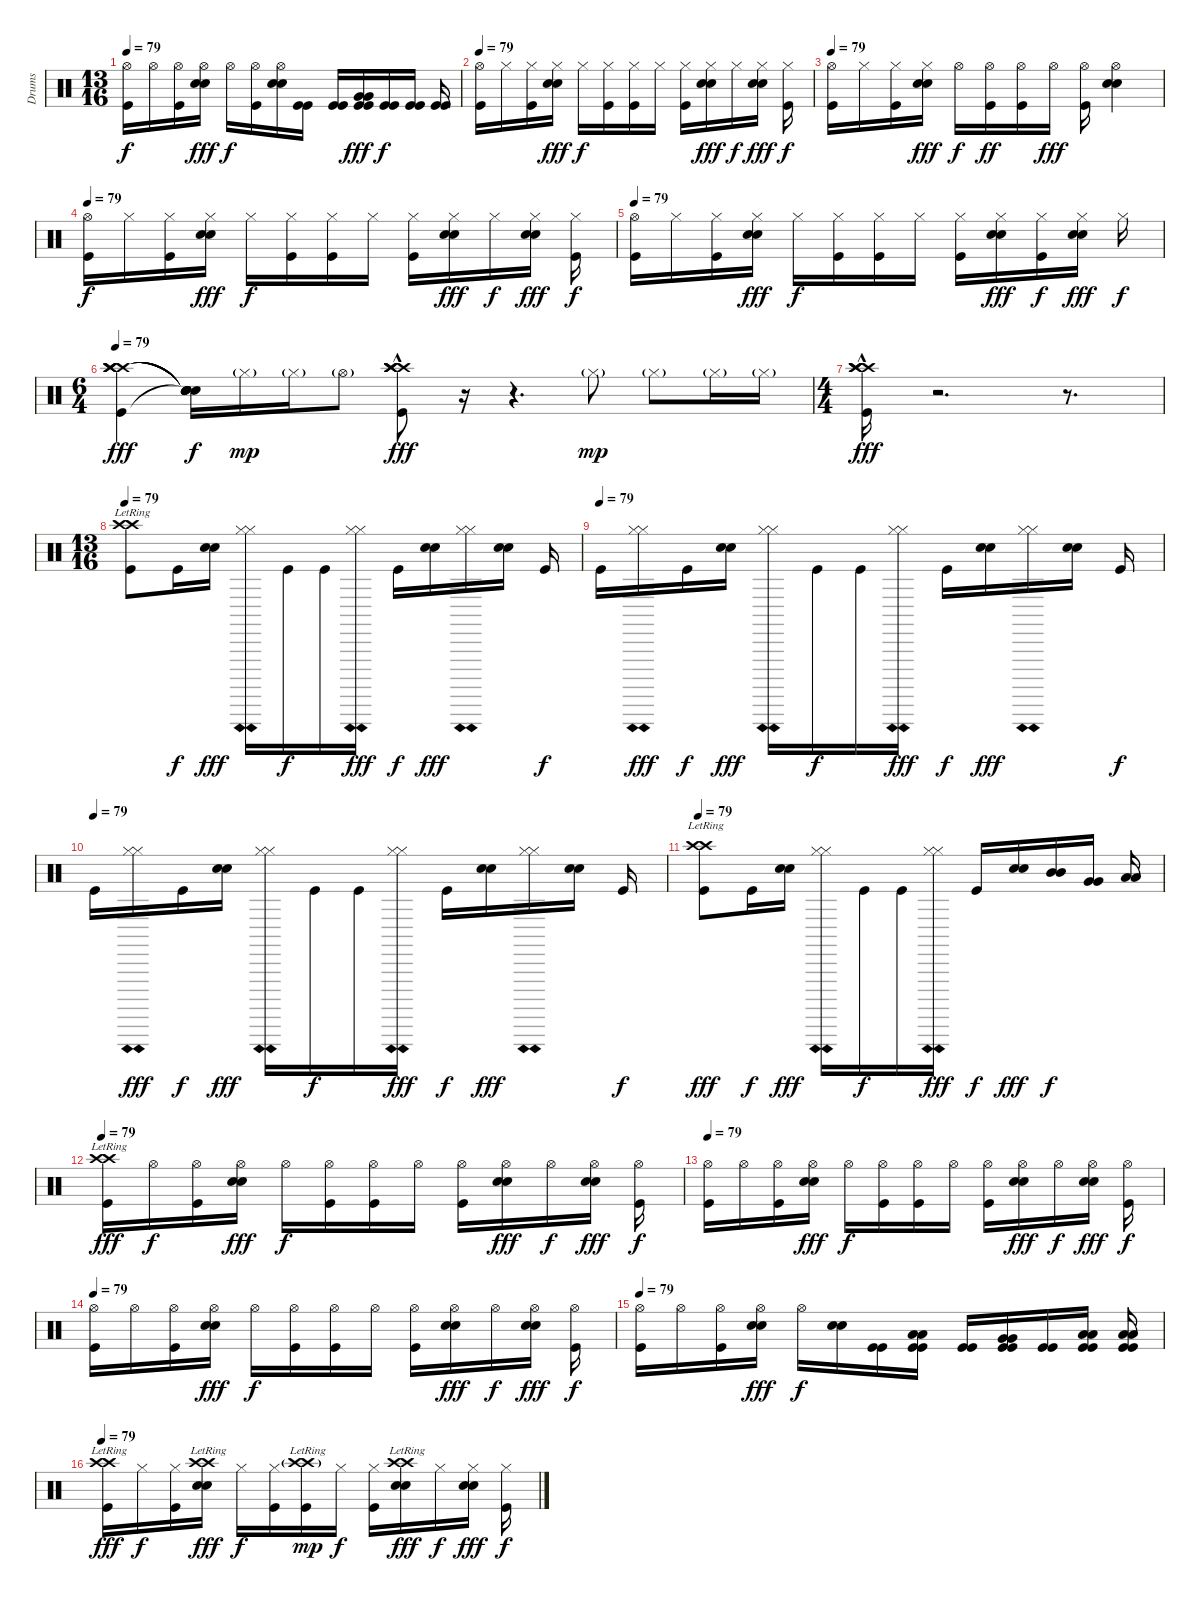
\track ("Drums" "Drums") {instrument percussion}
\staff {score}
\articulation defaults
\ts (13 16)
\tempo 79
\clef neutral
\ks c
("Hi-Hat (open)" "Kick (hit)").16{dy f} "Hi-Hat (open)".16 ("Hi-Hat (open)" "Kick (hit)").16 ("Hi-Hat (open)" "Electric Snare (hit)" "Electric Snare (hit)").16{dy fff} "Hi-Hat (open)".16{dy f} ("Hi-Hat (open)" "Kick (hit)").16 ("Hi-Hat (open)" "Electric Snare (hit)" "Electric Snare (hit)").16 ("Kick (hit)" "Kick (hit)").16 ("Kick (hit)" "Kick (hit)").16 ("Very Low Tom (hit)" "Very Low Tom (hit)" "Kick (hit)" "Kick (hit)").16{dy fff} ("Kick (hit)" "Kick (hit)").16{dy f} ("Kick (hit)" "Kick (hit)").16 ("Kick (hit)" "Kick (hit)").16 |
\tempo 79
("Hi-Hat (open)" "Kick (hit)").16 "Hi-Hat (closed)".16 ("Hi-Hat (closed)" "Kick (hit)").16 ("Hi-Hat (closed)" "Electric Snare (hit)" "Electric Snare (hit)").16{dy fff} "Hi-Hat (closed)".16{dy f} ("Hi-Hat (closed)" "Kick (hit)").16 ("Hi-Hat (closed)" "Kick (hit)").16 "Hi-Hat (closed)".16 ("Hi-Hat (closed)" "Kick (hit)").16 ("Hi-Hat (closed)" "Electric Snare (hit)" "Electric Snare (hit)").16{dy fff} "Hi-Hat (closed)".16{dy f} ("Hi-Hat (closed)" "Electric Snare (hit)" "Electric Snare (hit)").16{dy fff} ("Hi-Hat (closed)" "Kick (hit)").16{dy f} |
\tempo 79
("Hi-Hat (open)" "Kick (hit)").16 "Hi-Hat (closed)".16{volume 16} ("Hi-Hat (closed)" "Kick (hit)").16 ("Hi-Hat (closed)" "Electric Snare (hit)" "Electric Snare (hit)").16{dy fff} "Hi-Hat (open)".16{dy f} ("Hi-Hat (open)" "Kick (hit)").16{dy ff} ("Hi-Hat (open)" "Kick (hit)").16 "Hi-Hat (open)".16{dy fff} ("Hi-Hat (open)" "Kick (hit)").16 ("Hi-Hat (open)" "Electric Snare (hit)" "Electric Snare (hit)").4 |
\tempo 79
("Hi-Hat (open)" "Kick (hit)").16{dy f volume 13} "Hi-Hat (closed)".16 ("Hi-Hat (closed)" "Kick (hit)").16 ("Hi-Hat (closed)" "Electric Snare (hit)" "Electric Snare (hit)").16{dy fff} "Hi-Hat (closed)".16{dy f} ("Hi-Hat (closed)" "Kick (hit)").16 ("Hi-Hat (closed)" "Kick (hit)").16 "Hi-Hat (closed)".16 ("Hi-Hat (closed)" "Kick (hit)").16 ("Hi-Hat (closed)" "Electric Snare (hit)" "Electric Snare (hit)").16{dy fff} "Hi-Hat (closed)".16{dy f} ("Hi-Hat (closed)" "Electric Snare (hit)" "Electric Snare (hit)").16{dy fff} ("Hi-Hat (closed)" "Kick (hit)").16{dy f} |
\tempo 79
("Hi-Hat (open)" "Kick (hit)").16 "Hi-Hat (closed)".16 ("Hi-Hat (closed)" "Kick (hit)").16 ("Hi-Hat (closed)" "Electric Snare (hit)" "Electric Snare (hit)").16{dy fff} "Hi-Hat (closed)".16{dy f} ("Hi-Hat (closed)" "Kick (hit)").16 ("Hi-Hat (closed)" "Kick (hit)").16 "Hi-Hat (closed)".16 ("Hi-Hat (closed)" "Kick (hit)").16 ("Hi-Hat (closed)" "Electric Snare (hit)" "Electric Snare (hit)").16{dy fff} ("Hi-Hat (closed)" "Kick (hit)").16{dy f} ("Hi-Hat (closed)" "Electric Snare (hit)" "Electric Snare (hit)").16{dy fff} "Hi-Hat (closed)".16{dy f} |
\ts (6 4)
\tempo 79
("Crash high (hit)" "Crash high (hit)" "Crash high (hit)" "Crash high (hit)" "Kick (hit)").4{dy fff volume 16} ("Snare (hit)"{t} "Snare (hit)"{t} "Snare (hit)"{t} "Snare (hit)"{t} "Snare (hit)"{t}).16{dy f} "Hi-Hat (closed)"{g}.16{dy mp} "Hi-Hat (closed)"{g}.16 "Hi-Hat (open)"{g}.8 ("Crash high (hit)"{hac} "Crash high (hit)"{hac} "Crash high (hit)"{hac} "Crash high (hit)"{hac} "Kick (hit)"{hac}).8{dy fff} r.16 r.4{d} "Hi-Hat (closed)"{g}.8{dy mp} "Hi-Hat (closed)"{g}.8 "Hi-Hat (closed)"{g}.16 "Hi-Hat (closed)"{g}.16 |
\ts (4 4)
("Crash high (hit)"{hac} "Crash high (hit)"{hac} "Crash high (hit)"{hac} "Crash high (hit)"{hac} "Kick (hit)"{hac}).16{dy fff} r.2{d} r.8{d} |
\ts (13 16)
\tempo 79
("Crash high (hit)"{lr} "Crash high (hit)"{lr} "Kick (hit)").8 "Kick (hit)".16{dy f} ("Electric Snare (hit)" "Electric Snare (hit)").16{dy fff} ("Hi-Hat (closed)"{ah 12} "Hi-Hat (closed)"{ah 12}).16 "Kick (hit)".16{dy f} "Kick (hit)".16 ("Hi-Hat (closed)"{ah 12} "Hi-Hat (closed)"{ah 12}).16{dy fff} "Kick (hit)".16{dy f} ("Electric Snare (hit)" "Electric Snare (hit)").16{dy fff} ("Hi-Hat (closed)"{ah 12} "Hi-Hat (closed)"{ah 12}).16 ("Electric Snare (hit)" "Electric Snare (hit)").16 "Kick (hit)".16{dy f} |
\tempo (79)
"Kick (hit)".16 ("Hi-Hat (closed)"{ah 12} "Hi-Hat (closed)"{ah 12}).16{dy fff} "Kick (hit)".16{dy f} ("Electric Snare (hit)" "Electric Snare (hit)").16{dy fff} ("Hi-Hat (closed)"{ah 12} "Hi-Hat (closed)"{ah 12}).16 "Kick (hit)".16{dy f} "Kick (hit)".16 ("Hi-Hat (closed)"{ah 12} "Hi-Hat (closed)"{ah 12}).16{dy fff} "Kick (hit)".16{dy f} ("Electric Snare (hit)" "Electric Snare (hit)").16{dy fff} ("Hi-Hat (closed)"{ah 12} "Hi-Hat (closed)"{ah 12}).16 ("Electric Snare (hit)" "Electric Snare (hit)").16 "Kick (hit)".16{dy f} |
\tempo (79)
"Kick (hit)".16 ("Hi-Hat (closed)"{ah 12} "Hi-Hat (closed)"{ah 12}).16{dy fff} "Kick (hit)".16{dy f} ("Electric Snare (hit)" "Electric Snare (hit)").16{dy fff} ("Hi-Hat (closed)"{ah 12} "Hi-Hat (closed)"{ah 12}).16 "Kick (hit)".16{dy f} "Kick (hit)".16 ("Hi-Hat (closed)"{ah 12} "Hi-Hat (closed)"{ah 12}).16{dy fff} "Kick (hit)".16{dy f} ("Electric Snare (hit)" "Electric Snare (hit)").16{dy fff} ("Hi-Hat (closed)"{ah 12} "Hi-Hat (closed)"{ah 12}).16 ("Electric Snare (hit)" "Electric Snare (hit)").16 "Kick (hit)".16{dy f} |
\tempo 79
("Crash high (hit)"{lr} "Crash high (hit)"{lr} "Kick (hit)").8{dy fff} "Kick (hit)".16{dy f} ("Electric Snare (hit)" "Electric Snare (hit)").16{dy fff} ("Hi-Hat (closed)"{ah 12} "Hi-Hat (closed)"{ah 12}).16 "Kick (hit)".16{dy f} "Kick (hit)".16 ("Hi-Hat (closed)"{ah 12} "Hi-Hat (closed)"{ah 12}).16{dy fff} "Kick (hit)".16{dy f} ("Electric Snare (hit)" "Electric Snare (hit)").16{dy fff} ("Mid Tom (hit)" "Mid Tom (hit)").16{dy f} ("Very Low Tom (hit)" "Very Low Tom (hit)").16 ("Low Floor Tom (hit)" "Low Floor Tom (hit)").16 |
\tempo 79
("Crash high (hit)"{lr} "Crash high (hit)"{lr} "Kick (hit)").16{dy fff volume 13} "Hi-Hat (open)".16{dy f} ("Hi-Hat (open)" "Kick (hit)").16 ("Hi-Hat (open)" "Electric Snare (hit)" "Electric Snare (hit)").16{dy fff} "Hi-Hat (open)".16{dy f} ("Hi-Hat (open)" "Kick (hit)").16 ("Hi-Hat (open)" "Kick (hit)").16 "Hi-Hat (open)".16 ("Hi-Hat (open)" "Kick (hit)").16 ("Hi-Hat (open)" "Electric Snare (hit)" "Electric Snare (hit)").16{dy fff} "Hi-Hat (open)".16{dy f} ("Hi-Hat (open)" "Electric Snare (hit)" "Electric Snare (hit)").16{dy fff} ("Hi-Hat (open)" "Kick (hit)").16{dy f} |
\tempo 79
("Hi-Hat (open)" "Kick (hit)").16{volume 13} "Hi-Hat (open)".16 ("Hi-Hat (open)" "Kick (hit)").16 ("Hi-Hat (open)" "Electric Snare (hit)" "Electric Snare (hit)").16{dy fff} "Hi-Hat (open)".16{dy f} ("Hi-Hat (open)" "Kick (hit)").16 ("Hi-Hat (open)" "Kick (hit)").16 "Hi-Hat (open)".16 ("Hi-Hat (open)" "Kick (hit)").16 ("Hi-Hat (open)" "Electric Snare (hit)" "Electric Snare (hit)").16{dy fff} "Hi-Hat (open)".16{dy f} ("Hi-Hat (open)" "Electric Snare (hit)" "Electric Snare (hit)").16{dy fff} ("Hi-Hat (open)" "Kick (hit)").16{dy f} |
\tempo 79
("Hi-Hat (open)" "Kick (hit)").16{volume 13} "Hi-Hat (open)".16 ("Hi-Hat (open)" "Kick (hit)").16 ("Hi-Hat (open)" "Electric Snare (hit)" "Electric Snare (hit)").16{dy fff} "Hi-Hat (open)".16{dy f} ("Hi-Hat (open)" "Kick (hit)").16 ("Hi-Hat (open)" "Kick (hit)").16 "Hi-Hat (open)".16 ("Hi-Hat (open)" "Kick (hit)").16 ("Hi-Hat (open)" "Electric Snare (hit)" "Electric Snare (hit)").16{dy fff} "Hi-Hat (open)".16{dy f} ("Hi-Hat (open)" "Electric Snare (hit)" "Electric Snare (hit)").16{dy fff} ("Hi-Hat (open)" "Kick (hit)").16{dy f} |
\tempo 79
("Hi-Hat (open)" "Kick (hit)").16{volume 13} "Hi-Hat (open)".16 ("Hi-Hat (open)" "Kick (hit)").16 ("Hi-Hat (open)" "Electric Snare (hit)" "Electric Snare (hit)").16{dy fff} "Hi-Hat (open)".16{dy f} ("Electric Snare (hit)" "Electric Snare (hit)").16 ("Kick (hit)" "Kick (hit)").16 ("Low Tom (hit)" "Low Tom (hit)" "Kick (hit)" "Kick (hit)").16 ("Kick (hit)" "Kick (hit)").16 ("Very Low Tom (hit)" "Very Low Tom (hit)" "Kick (hit)" "Kick (hit)").16 ("Kick (hit)" "Kick (hit)").16 ("Low Floor Tom (hit)" "Low Floor Tom (hit)" "Kick (hit)" "Kick (hit)").16 ("Low Floor Tom (hit)" "Low Floor Tom (hit)" "Kick (hit)" "Kick (hit)").16 |
\tempo 79
("Crash high (hit)"{lr} "Crash high (hit)"{lr} "Kick (hit)").16{dy fff volume 13} "Hi-Hat (closed)".16{dy f} ("Hi-Hat (closed)" "Kick (hit)").16 ("Crash high (hit)"{lr} "Crash high (hit)"{lr} "Electric Snare (hit)" "Electric Snare (hit)").16{dy fff} "Hi-Hat (closed)".16{dy f} ("Hi-Hat (closed)" "Kick (hit)").16 ("Crash high (hit)"{g lr} "Crash high (hit)"{g lr} "Kick (hit)").16{dy mp} "Hi-Hat (closed)".16{dy f} ("Hi-Hat (closed)" "Kick (hit)").16 ("Crash high (hit)"{lr} "Crash high (hit)"{lr} "Electric Snare (hit)" "Electric Snare (hit)").16{dy fff} "Hi-Hat (closed)".16{dy f} ("Hi-Hat (closed)" "Electric Snare (hit)" "Electric Snare (hit)").16{dy fff} ("Hi-Hat (closed)" "Kick (hit)").16{dy f}
